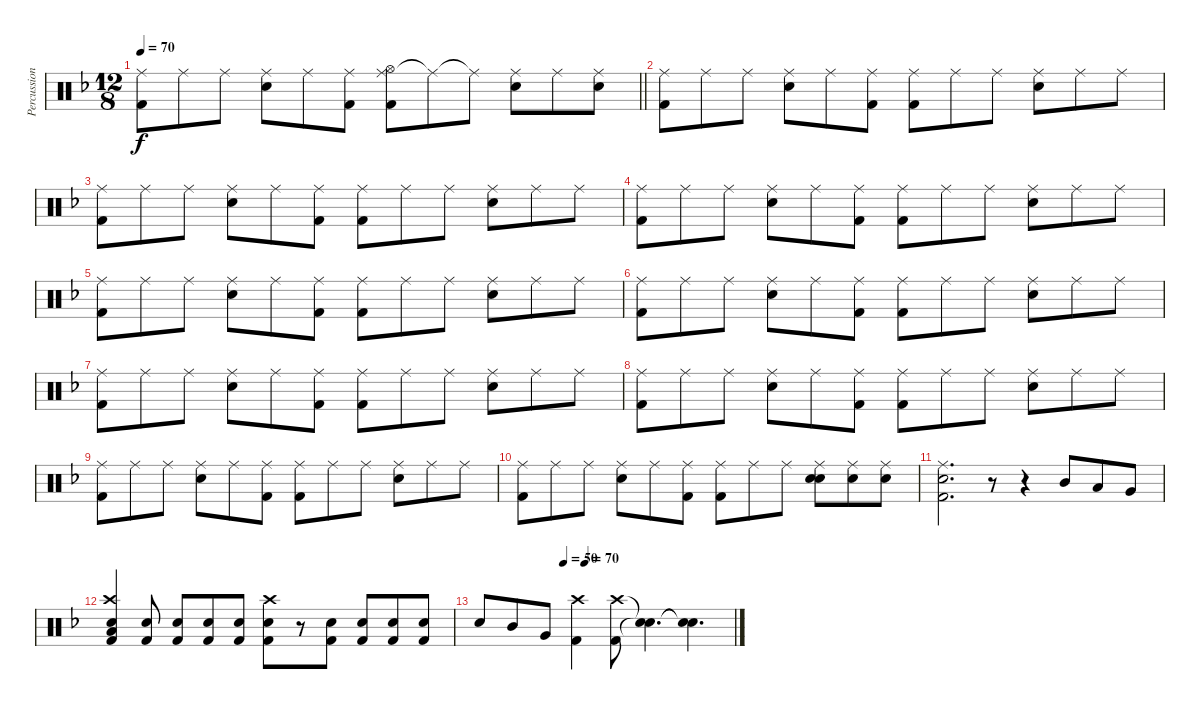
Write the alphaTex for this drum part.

\track ("Percussion" "Percussion") {instrument percussion}
\staff {score}
\articulation defaults
\ts (12 8)
\tempo 70
\clef neutral
\barLineRight lightlight
\ks dminor
("Ride (middle)" "Kick (hit) 2").8{dy f} "Ride (middle)".8 "Ride (middle)".8 ("Ride (middle)" "Snare (hit) 2").8 "Ride (middle)".8 ("Ride (middle)" "Kick (hit) 2").8 ("Ride (middle)" "Hi-Hat (open)" "Kick (hit) 2").8 "Ride (middle)"{t}.8 "Ride (middle)"{t}.8 ("Ride (middle)" "Snare (hit) 2").8 "Ride (middle)".8 ("Ride (middle)" "Snare (hit) 2").8 |
("Ride (middle)" "Kick (hit) 2").8 "Ride (middle)".8 "Ride (middle)".8 ("Ride (middle)" "Snare (hit) 2").8 "Ride (middle)".8 ("Ride (middle)" "Kick (hit) 2").8 ("Ride (middle)" "Kick (hit) 2").8 "Ride (middle)".8 "Ride (middle)".8 ("Ride (middle)" "Snare (hit) 2").8 "Ride (middle)".8 "Ride (middle)".8 |
("Ride (middle)" "Kick (hit) 2").8 "Ride (middle)".8 "Ride (middle)".8 ("Ride (middle)" "Snare (hit) 2").8 "Ride (middle)".8 ("Ride (middle)" "Kick (hit) 2").8 ("Ride (middle)" "Kick (hit) 2").8 "Ride (middle)".8 "Ride (middle)".8 ("Ride (middle)" "Snare (hit) 2").8 "Ride (middle)".8 "Ride (middle)".8 |
("Ride (middle)" "Kick (hit) 2").8 "Ride (middle)".8 "Ride (middle)".8 ("Ride (middle)" "Snare (hit) 2").8 "Ride (middle)".8 ("Ride (middle)" "Kick (hit) 2").8 ("Ride (middle)" "Kick (hit) 2").8 "Ride (middle)".8 "Ride (middle)".8 ("Ride (middle)" "Snare (hit) 2").8 "Ride (middle)".8 "Ride (middle)".8 |
("Ride (middle)" "Kick (hit) 2").8 "Ride (middle)".8 "Ride (middle)".8 ("Ride (middle)" "Snare (hit) 2").8 "Ride (middle)".8 ("Ride (middle)" "Kick (hit) 2").8 ("Ride (middle)" "Kick (hit) 2").8 "Ride (middle)".8 "Ride (middle)".8 ("Ride (middle)" "Snare (hit) 2").8 "Ride (middle)".8 "Ride (middle)".8 |
("Ride (middle)" "Kick (hit) 2").8 "Ride (middle)".8 "Ride (middle)".8 ("Ride (middle)" "Snare (hit) 2").8 "Ride (middle)".8 ("Ride (middle)" "Kick (hit) 2").8 ("Ride (middle)" "Kick (hit) 2").8 "Ride (middle)".8 "Ride (middle)".8 ("Ride (middle)" "Snare (hit) 2").8 "Ride (middle)".8 "Ride (middle)".8 |
("Ride (middle)" "Kick (hit) 2").8 "Ride (middle)".8 "Ride (middle)".8 ("Ride (middle)" "Snare (hit) 2").8 "Ride (middle)".8 ("Ride (middle)" "Kick (hit) 2").8 ("Ride (middle)" "Kick (hit) 2").8 "Ride (middle)".8 "Ride (middle)".8 ("Ride (middle)" "Snare (hit) 2").8 "Ride (middle)".8 "Ride (middle)".8 |
("Ride (middle)" "Kick (hit) 2").8 "Ride (middle)".8 "Ride (middle)".8 ("Ride (middle)" "Snare (hit) 2").8 "Ride (middle)".8 ("Ride (middle)" "Kick (hit) 2").8 ("Ride (middle)" "Kick (hit) 2").8 "Ride (middle)".8 "Ride (middle)".8 ("Ride (middle)" "Snare (hit) 2").8 "Ride (middle)".8 "Ride (middle)".8 |
("Ride (middle)" "Kick (hit) 2").8 "Ride (middle)".8 "Ride (middle)".8 ("Ride (middle)" "Snare (hit) 2").8 "Ride (middle)".8 ("Ride (middle)" "Kick (hit) 2").8 ("Ride (middle)" "Kick (hit) 2").8 "Ride (middle)".8 "Ride (middle)".8 ("Ride (middle)" "Snare (hit) 2").8 "Ride (middle)".8 "Ride (middle)".8 |
("Ride (middle)" "Kick (hit) 2").8 "Ride (middle)".8 "Ride (middle)".8 ("Ride (middle)" "Snare (hit) 2").8 "Ride (middle)".8 ("Ride (middle)" "Kick (hit) 2").8 ("Ride (middle)" "Kick (hit) 2").8 "Ride (middle)".8 "Ride (middle)".8 ("Ride (middle)" "Snare (hit) 2" "Snare (hit) 2").8 ("Ride (middle)" "Snare (hit) 2").8 ("Ride (middle)" "Snare (hit) 2").8 |
("Ride (middle)" "Snare (hit) 2" "Kick (hit) 2").2{d} r.8 r.4 "Mid Tom (hit)".8 "Low Tom (hit)".8 "Very Low Tom (hit)".8 |
("Crash high (hit)" "Kick (hit) 2" "Low Floor Tom (hit)" "Snare (hit) 2").4 ("Snare (hit) 2" "Kick (hit) 2").8 ("Snare (hit) 2" "Kick (hit) 2").8 ("Snare (hit) 2" "Kick (hit) 2").8 ("Snare (hit) 2" "Kick (hit) 2").8 ("Crash high (hit)" "Snare (hit) 2" "Kick (hit) 2").8 r.8 ("Snare (hit) 2" "Kick (hit) 2").8 ("Snare (hit) 2" "Kick (hit) 2").8 ("Snare (hit) 2" "Kick (hit) 2").8 ("Snare (hit) 2" "Kick (hit) 2").8 |
\tempo (50 0.3333333333333333)
\tempo (70 0.4166666666666667)
"Snare (hit) 2".8 "Mid Tom (hit)".8 "Very Low Tom (hit)".8 ("Crash high (hit)" "Kick (hit) 2").4 ("Crash high (hit)" "Kick (hit) 2").8 ("Snare (hit)"{t} "Snare (hit)"{t}).4{d} ("Snare (hit)"{t} "Snare (hit)"{t}).4{d}
